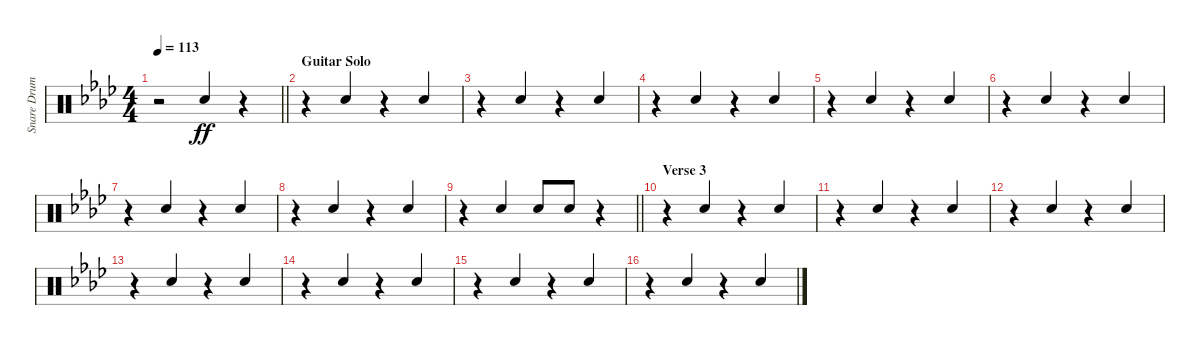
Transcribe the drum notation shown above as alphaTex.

\track ("Snare Drum" "Snare Drum") {instrument percussion}
\staff {score}
\articulation defaults
\ts (4 4)
\tempo 113
\clef neutral
\barLineRight lightlight
\ks fminor
r.2{dy ff} "Electric Snare (hit)".4{beam Up} r.4 |
\section ("" "Guitar Solo")
r.4 "Electric Snare (hit)".4{beam Up} r.4 "Electric Snare (hit)".4{beam Up} |
r.4 "Electric Snare (hit)".4{beam Up} r.4 "Electric Snare (hit)".4{beam Up} |
r.4 "Electric Snare (hit)".4{beam Up} r.4 "Electric Snare (hit)".4{beam Up} |
r.4 "Electric Snare (hit)".4{beam Up} r.4 "Electric Snare (hit)".4{beam Up} |
r.4 "Electric Snare (hit)".4{beam Up} r.4 "Electric Snare (hit)".4{beam Up} |
r.4 "Electric Snare (hit)".4{beam Up} r.4 "Electric Snare (hit)".4{beam Up} |
r.4 "Electric Snare (hit)".4{beam Up} r.4 "Electric Snare (hit)".4{beam Up} |
\barLineRight lightlight
r.4 "Electric Snare (hit)".4{beam Up} "Electric Snare (hit)".8{beam Up} "Electric Snare (hit)".8{beam Up} r.4 |
\section ("" "Verse 3")
r.4 "Electric Snare (hit)".4{beam Up} r.4 "Electric Snare (hit)".4{beam Up} |
r.4 "Electric Snare (hit)".4{beam Up} r.4 "Electric Snare (hit)".4{beam Up} |
r.4 "Electric Snare (hit)".4{beam Up} r.4 "Electric Snare (hit)".4{beam Up} |
r.4 "Electric Snare (hit)".4{beam Up} r.4 "Electric Snare (hit)".4{beam Up} |
r.4 "Electric Snare (hit)".4{beam Up} r.4 "Electric Snare (hit)".4{beam Up} |
r.4 "Electric Snare (hit)".4{beam Up} r.4 "Electric Snare (hit)".4{beam Up} |
r.4 "Electric Snare (hit)".4{beam Up} r.4 "Electric Snare (hit)".4{beam Up}
